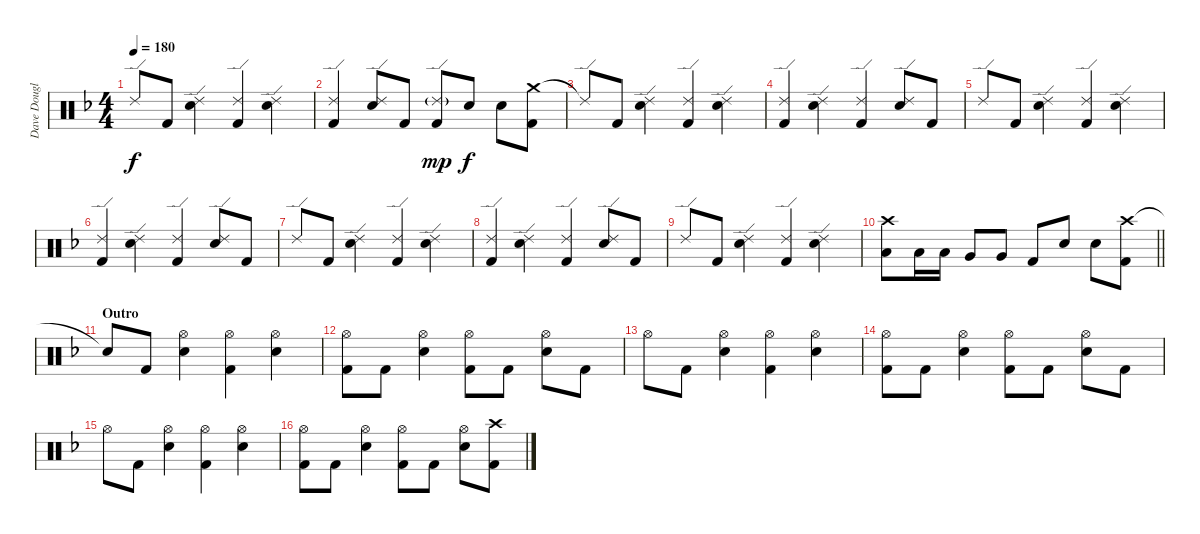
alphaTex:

\track ("Dave Douglas (Drum)" "Dave Dougl") {instrument percussion}
\staff {score}
\articulation defaults
\ts (4 4)
\tempo 180
\clef neutral
\ks dminor "Ride (edge) 2".8{dy f} "Kick (hit) 2".8
("Ride (edge) 2" "Snare (hit) 2").4 ("Ride (edge) 2" "Kick (hit) 2").4 ("Ride (edge) 2" "Snare (hit) 2").4 |
("Ride (edge) 2" "Kick (hit) 2").4 ("Ride (edge) 2" "Snare (hit) 2").8 "Kick (hit) 2".8 ("Ride (edge) 2"{g} "Kick (hit) 2").8{dy mp} "Snare (hit) 2".8{dy f} "Snare (hit) 2".8 ("Crash medium (hit)" "Kick (hit) 2").8 |
"Ride (edge) 2"{t}.8 "Kick (hit) 2".8 ("Ride (edge) 2" "Snare (hit) 2").4 ("Ride (edge) 2" "Kick (hit) 2").4 ("Ride (edge) 2" "Snare (hit) 2").4 |
("Ride (edge) 2" "Kick (hit) 2").4 ("Ride (edge) 2" "Snare (hit) 2").4 ("Ride (edge) 2" "Kick (hit) 2").4 ("Ride (edge) 2" "Snare (hit) 2").8 "Kick (hit) 2".8 |
"Ride (edge) 2".8 "Kick (hit) 2".8 ("Ride (edge) 2" "Snare (hit) 2").4 ("Ride (edge) 2" "Kick (hit) 2").4 ("Ride (edge) 2" "Snare (hit) 2").4 |
("Ride (edge) 2" "Kick (hit) 2").4 ("Ride (edge) 2" "Snare (hit) 2").4 ("Ride (edge) 2" "Kick (hit) 2").4 ("Ride (edge) 2" "Snare (hit) 2").8 "Kick (hit) 2".8 |
"Ride (edge) 2".8 "Kick (hit) 2".8 ("Ride (edge) 2" "Snare (hit) 2").4 ("Ride (edge) 2" "Kick (hit) 2").4 ("Ride (edge) 2" "Snare (hit) 2").4 |
("Ride (edge) 2" "Kick (hit) 2").4 ("Ride (edge) 2" "Snare (hit) 2").4 ("Ride (edge) 2" "Kick (hit) 2").4 ("Ride (edge) 2" "Snare (hit) 2").8 "Kick (hit) 2".8 |
"Ride (edge) 2".8 "Kick (hit) 2".8 ("Ride (edge) 2" "Snare (hit) 2").4 ("Ride (edge) 2" "Kick (hit) 2").4 ("Ride (edge) 2" "Snare (hit) 2").4 |
\barLineRight lightlight
("Crash high (hit)" "Low Tom (hit)").8 "Low Tom (hit)".16 "Low Tom (hit)".16 "Very Low Tom (hit)".8 "Very Low Tom (hit)".8 "Kick (hit) 2".8 "Snare (hit) 2".8 "Snare (hit) 2".8 ("Crash high (hit)" "Kick (hit) 2").8 |
\section ("" "Outro")
"Snare (hit)"{t}.8 "Kick (hit) 2".8 ("Hi-Hat (open)" "Snare (hit) 2").4 ("Hi-Hat (open)" "Kick (hit) 2").4 ("Hi-Hat (open)" "Snare (hit) 2").4 |
("Hi-Hat (open)" "Kick (hit) 2").8 "Kick (hit) 2".8 ("Hi-Hat (open)" "Snare (hit) 2").4 ("Hi-Hat (open)" "Kick (hit) 2").8 "Kick (hit) 2".8 ("Hi-Hat (open)" "Snare (hit) 2").8 "Kick (hit) 2".8 |
"Hi-Hat (open)".8 "Kick (hit) 2".8 ("Hi-Hat (open)" "Snare (hit) 2").4 ("Hi-Hat (open)" "Kick (hit) 2").4 ("Hi-Hat (open)" "Snare (hit) 2").4 |
("Hi-Hat (open)" "Kick (hit) 2").8 "Kick (hit) 2".8 ("Hi-Hat (open)" "Snare (hit) 2").4 ("Hi-Hat (open)" "Kick (hit) 2").8 "Kick (hit) 2".8 ("Hi-Hat (open)" "Snare (hit) 2").8 "Kick (hit) 2".8 |
"Hi-Hat (open)".8 "Kick (hit) 2".8 ("Hi-Hat (open)" "Snare (hit) 2").4 ("Hi-Hat (open)" "Kick (hit) 2").4 ("Hi-Hat (open)" "Snare (hit) 2").4 |
("Hi-Hat (open)" "Kick (hit) 2").8 "Kick (hit) 2".8 ("Hi-Hat (open)" "Snare (hit) 2").4 ("Hi-Hat (open)" "Kick (hit) 2").8 "Kick (hit) 2".8 ("Hi-Hat (open)" "Snare (hit) 2").8 ("Crash high (hit)" "Kick (hit) 2").8
